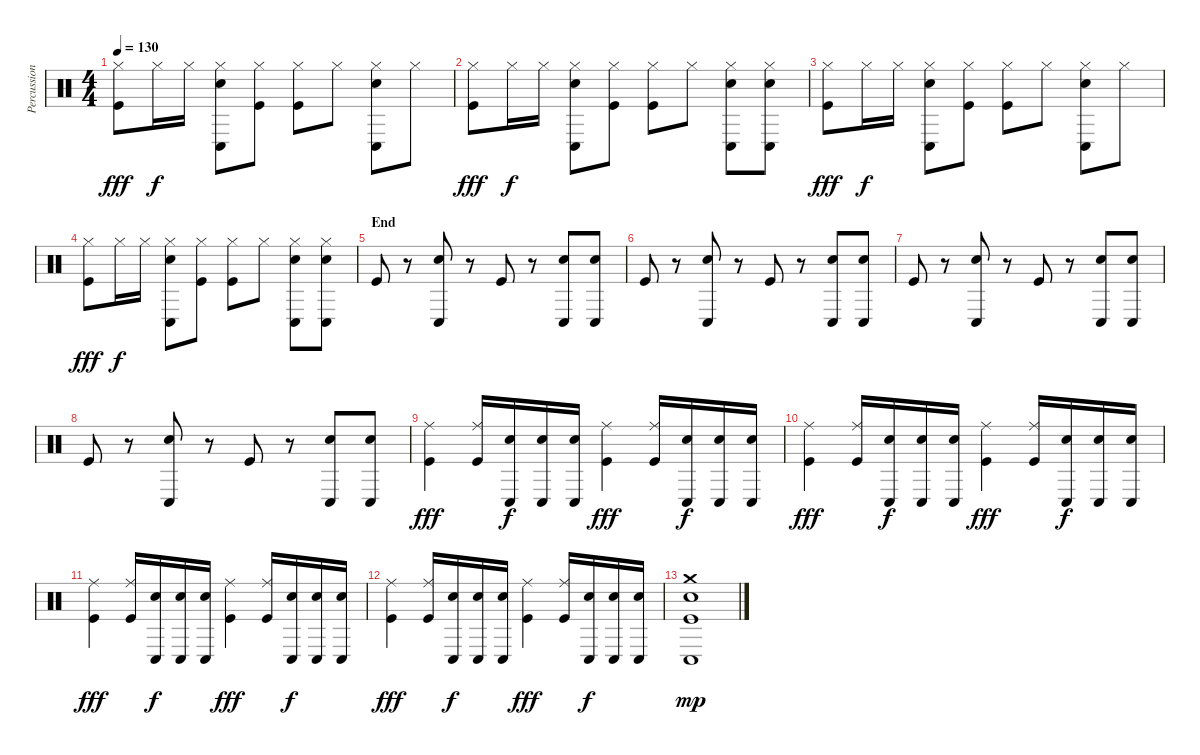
\track ("Percussion" "Percussion") {instrument percussion}
\staff {score}
\articulation defaults
\ts (4 4)
\tempo 130
\clef neutral
\ks c
("Hi-Hat (closed)" "Kick (hit)").8{dy fff} "Hi-Hat (closed)".16{dy f} "Hi-Hat (closed)".16 ("Hi-Hat (closed)" "Conga low (hit)" "Electric Snare (hit)").8 ("Hi-Hat (closed)" "Kick (hit)").8 ("Hi-Hat (closed)" "Kick (hit)").8 "Hi-Hat (closed)".8 ("Hi-Hat (closed)" "Conga low (hit)" "Electric Snare (hit)").8 "Hi-Hat (closed)".8 |
("Hi-Hat (closed)" "Kick (hit)").8{dy fff} "Hi-Hat (closed)".16{dy f} "Hi-Hat (closed)".16 ("Hi-Hat (closed)" "Conga low (hit)" "Electric Snare (hit)").8 ("Hi-Hat (closed)" "Kick (hit)").8 ("Hi-Hat (closed)" "Kick (hit)").8 "Hi-Hat (closed)".8 ("Hi-Hat (closed)" "Conga low (hit)" "Electric Snare (hit)").8 ("Hi-Hat (closed)" "Conga low (hit)" "Electric Snare (hit)").8 |
("Hi-Hat (closed)" "Kick (hit)").8{dy fff} "Hi-Hat (closed)".16{dy f} "Hi-Hat (closed)".16 ("Hi-Hat (closed)" "Conga low (hit)" "Electric Snare (hit)").8 ("Hi-Hat (closed)" "Kick (hit)").8 ("Hi-Hat (closed)" "Kick (hit)").8 "Hi-Hat (closed)".8 ("Hi-Hat (closed)" "Conga low (hit)" "Electric Snare (hit)").8 "Hi-Hat (closed)".8 |
("Hi-Hat (closed)" "Kick (hit)").8{dy fff} "Hi-Hat (closed)".16{dy f} "Hi-Hat (closed)".16 ("Hi-Hat (closed)" "Conga low (hit)" "Electric Snare (hit)").8 ("Hi-Hat (closed)" "Kick (hit)").8 ("Hi-Hat (closed)" "Kick (hit)").8 "Hi-Hat (closed)".8 ("Hi-Hat (closed)" "Conga low (hit)" "Electric Snare (hit)").8 ("Hi-Hat (closed)" "Conga low (hit)" "Electric Snare (hit)").8 |
\section ("" "End")
"Kick (hit)".8 r.8 ("Conga low (hit)" "Electric Snare (hit)").8 r.8 "Kick (hit)".8 r.8 ("Conga low (hit)" "Electric Snare (hit)").8 ("Conga low (hit)" "Electric Snare (hit)").8 |
"Kick (hit)".8 r.8 ("Conga low (hit)" "Electric Snare (hit)").8 r.8 "Kick (hit)".8 r.8 ("Conga low (hit)" "Electric Snare (hit)").8 ("Conga low (hit)" "Electric Snare (hit)").8 |
"Kick (hit)".8 r.8 ("Conga low (hit)" "Electric Snare (hit)").8 r.8 "Kick (hit)".8 r.8 ("Conga low (hit)" "Electric Snare (hit)").8 ("Conga low (hit)" "Electric Snare (hit)").8 |
"Kick (hit)".8 r.8 ("Conga low (hit)" "Electric Snare (hit)").8 r.8 "Kick (hit)".8 r.8 ("Conga low (hit)" "Electric Snare (hit)").8 ("Conga low (hit)" "Electric Snare (hit)").8 |
("Ride (middle)" "Kick (hit)").4{dy fff} ("Ride (middle)" "Kick (hit)").16 ("Conga low (hit)" "Electric Snare (hit)").16{dy f} ("Conga low (hit)" "Electric Snare (hit)").16 ("Conga low (hit)" "Electric Snare (hit)").16 ("Ride (middle)" "Kick (hit)").4{dy fff} ("Ride (middle)" "Kick (hit)").16 ("Conga low (hit)" "Electric Snare (hit)").16{dy f} ("Conga low (hit)" "Electric Snare (hit)").16 ("Conga low (hit)" "Electric Snare (hit)").16 |
("Ride (middle)" "Kick (hit)").4{dy fff} ("Ride (middle)" "Kick (hit)").16 ("Conga low (hit)" "Electric Snare (hit)").16{dy f} ("Conga low (hit)" "Electric Snare (hit)").16 ("Conga low (hit)" "Electric Snare (hit)").16 ("Ride (middle)" "Kick (hit)").4{dy fff} ("Ride (middle)" "Kick (hit)").16 ("Conga low (hit)" "Electric Snare (hit)").16{dy f} ("Conga low (hit)" "Electric Snare (hit)").16 ("Conga low (hit)" "Electric Snare (hit)").16 |
("Ride (middle)" "Kick (hit)").4{dy fff} ("Ride (middle)" "Kick (hit)").16 ("Conga low (hit)" "Electric Snare (hit)").16{dy f} ("Conga low (hit)" "Electric Snare (hit)").16 ("Conga low (hit)" "Electric Snare (hit)").16 ("Ride (middle)" "Kick (hit)").4{dy fff} ("Ride (middle)" "Kick (hit)").16 ("Conga low (hit)" "Electric Snare (hit)").16{dy f} ("Conga low (hit)" "Electric Snare (hit)").16 ("Conga low (hit)" "Electric Snare (hit)").16 |
("Ride (middle)" "Kick (hit)").4{dy fff} ("Ride (middle)" "Kick (hit)").16 ("Conga low (hit)" "Electric Snare (hit)").16{dy f} ("Conga low (hit)" "Electric Snare (hit)").16 ("Conga low (hit)" "Electric Snare (hit)").16 ("Ride (middle)" "Kick (hit)").4{dy fff} ("Ride (middle)" "Kick (hit)").16 ("Conga low (hit)" "Electric Snare (hit)").16{dy f} ("Conga low (hit)" "Electric Snare (hit)").16 ("Conga low (hit)" "Electric Snare (hit)").16 |
("Crash medium (hit)" "Conga low (hit)" "Electric Snare (hit)" "Kick (hit)").1{dy mp}
